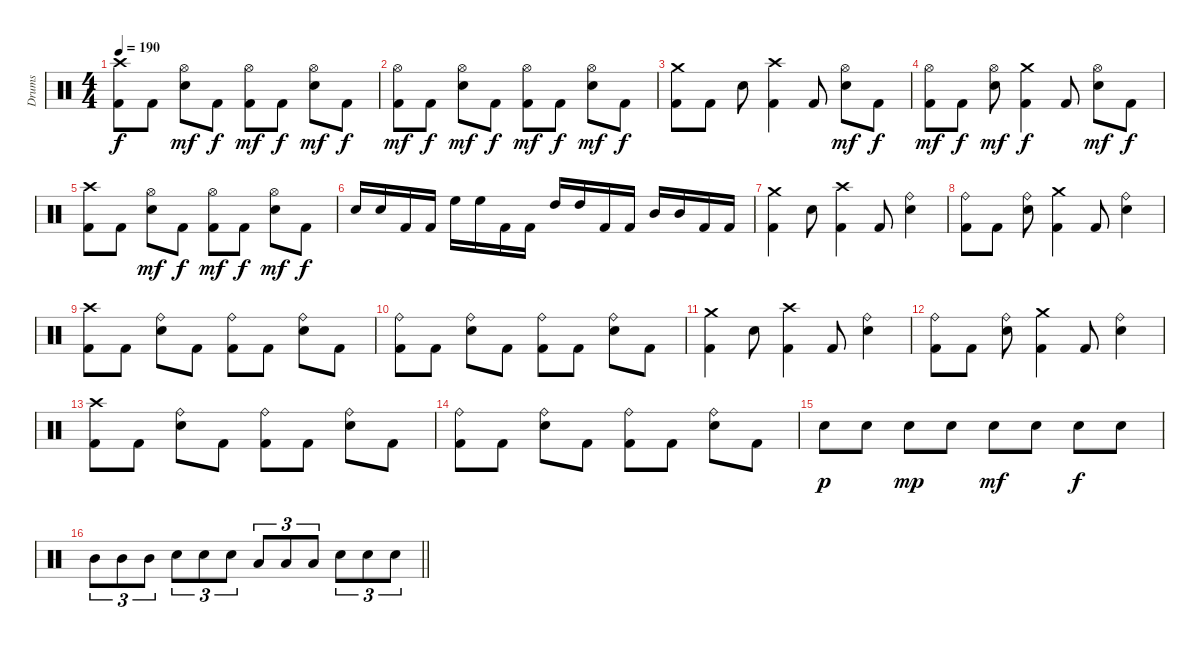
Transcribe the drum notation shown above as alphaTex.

\track ("Drums" "Drums") {instrument percussion}
\staff {score}
\articulation defaults
\ts (4 4)
\tempo 190
\clef neutral
\ks c
("Crash high (hit)" "Kick (hit) 2").8{dy f} "Kick (hit) 2".8 ("Hi-Hat (open)" "Electric Snare (hit)").8{dy mf} "Kick (hit) 2".8{dy f} ("Hi-Hat (open)" "Kick (hit) 2").8{dy mf} "Kick (hit) 2".8{dy f} ("Hi-Hat (open)" "Electric Snare (hit)").8{dy mf} "Kick (hit) 2".8{dy f} |
("Hi-Hat (open)" "Kick (hit) 2").8{dy mf} "Kick (hit) 2".8{dy f} ("Hi-Hat (open)" "Electric Snare (hit)").8{dy mf} "Kick (hit) 2".8{dy f} ("Hi-Hat (open)" "Kick (hit) 2").8{dy mf} "Kick (hit) 2".8{dy f} ("Hi-Hat (open)" "Electric Snare (hit)").8{dy mf} "Kick (hit) 2".8{dy f} |
("Crash medium (hit)" "Kick (hit) 2").8 "Kick (hit) 2".8 "Electric Snare (hit)".8 ("Crash high (hit)" "Kick (hit) 2").4 "Kick (hit) 2".8 ("Hi-Hat (open)" "Electric Snare (hit)").8{dy mf} "Kick (hit) 2".8{dy f} |
("Hi-Hat (open)" "Kick (hit) 2").8{dy mf} "Kick (hit) 2".8{dy f} ("Hi-Hat (open)" "Electric Snare (hit)").8{dy mf} ("Crash medium (hit)" "Kick (hit) 2").4{dy f} "Kick (hit) 2".8 ("Hi-Hat (open)" "Electric Snare (hit)").8{dy mf} "Kick (hit) 2".8{dy f} |
("Crash high (hit)" "Kick (hit) 2").8 "Kick (hit) 2".8 ("Hi-Hat (open)" "Electric Snare (hit)").8{dy mf} "Kick (hit) 2".8{dy f} ("Hi-Hat (open)" "Kick (hit) 2").8{dy mf} "Kick (hit) 2".8{dy f} ("Hi-Hat (open)" "Electric Snare (hit)").8{dy mf} "Kick (hit) 2".8{dy f} |
"Electric Snare (hit)".16 "Electric Snare (hit)".16 "Kick (hit) 2".16 "Kick (hit) 2".16 "High Floor Tom (hit)".16 "High Floor Tom (hit)".16 "Kick (hit) 2".16 "Kick (hit) 2".16 "High Tom (hit)".16 "High Tom (hit)".16 "Kick (hit) 2".16 "Kick (hit) 2".16 "Mid Tom (hit)".16 "Mid Tom (hit)".16 "Kick (hit) 2".16 "Kick (hit) 2".16 |
("Crash medium (hit)" "Kick (hit) 2").4 "Electric Snare (hit)".8 ("Crash high (hit)" "Kick (hit) 2").4 "Kick (hit) 2".8 ("Ride (bell)" "Electric Snare (hit)").4 |
("Ride (bell)" "Kick (hit) 2").8 "Kick (hit) 2".8 ("Ride (bell)" "Electric Snare (hit)").8 ("Crash medium (hit)" "Kick (hit) 2").4 "Kick (hit) 2".8 ("Ride (bell)" "Electric Snare (hit)").4 |
("Crash high (hit)" "Kick (hit) 2").8 "Kick (hit) 2".8 ("Ride (bell)" "Electric Snare (hit)").8 "Kick (hit) 2".8 ("Ride (bell)" "Kick (hit) 2").8 "Kick (hit) 2".8 ("Ride (bell)" "Electric Snare (hit)").8 "Kick (hit) 2".8 |
("Ride (bell)" "Kick (hit) 2").8 "Kick (hit) 2".8 ("Ride (bell)" "Electric Snare (hit)").8 "Kick (hit) 2".8 ("Ride (bell)" "Kick (hit) 2").8 "Kick (hit) 2".8 ("Ride (bell)" "Electric Snare (hit)").8 "Kick (hit) 2".8 |
("Crash medium (hit)" "Kick (hit) 2").4 "Electric Snare (hit)".8 ("Crash high (hit)" "Kick (hit) 2").4 "Kick (hit) 2".8 ("Ride (bell)" "Electric Snare (hit)").4 |
("Ride (bell)" "Kick (hit) 2").8 "Kick (hit) 2".8 ("Ride (bell)" "Electric Snare (hit)").8 ("Crash medium (hit)" "Kick (hit) 2").4 "Kick (hit) 2".8 ("Ride (bell)" "Electric Snare (hit)").4 |
("Crash high (hit)" "Kick (hit) 2").8 "Kick (hit) 2".8 ("Ride (bell)" "Electric Snare (hit)").8 "Kick (hit) 2".8 ("Ride (bell)" "Kick (hit) 2").8 "Kick (hit) 2".8 ("Ride (bell)" "Electric Snare (hit)").8 "Kick (hit) 2".8 |
("Ride (bell)" "Kick (hit) 2").8 "Kick (hit) 2".8 ("Ride (bell)" "Electric Snare (hit)").8 "Kick (hit) 2".8 ("Ride (bell)" "Kick (hit) 2").8 "Kick (hit) 2".8 ("Ride (bell)" "Electric Snare (hit)").8 "Kick (hit) 2".8 |
"Electric Snare (hit)".8{dy p} "Electric Snare (hit)".8 "Electric Snare (hit)".8{dy mp} "Electric Snare (hit)".8 "Electric Snare (hit)".8{dy mf} "Electric Snare (hit)".8 "Electric Snare (hit)".8{dy f} "Electric Snare (hit)".8 |
\barLineRight lightlight "Mid Tom (hit)".8{tu (3 2)} "Mid Tom (hit)".8{tu (3 2)} "Mid Tom (hit)".8{tu (3 2)} "Electric Snare (hit)".8{tu (3 2)} "Electric Snare (hit)".8{tu (3 2)} "Electric Snare (hit)".8{tu (3 2)} "Low Tom (hit)".8{tu (3 2)} "Low Tom (hit)".8{tu (3 2)} "Low Tom (hit)".8{tu (3 2)} "Electric Snare (hit)".8{tu (3 2)} "Electric Snare (hit)".8{tu (3 2)} "Electric Snare (hit)".8{tu (3 2)}
